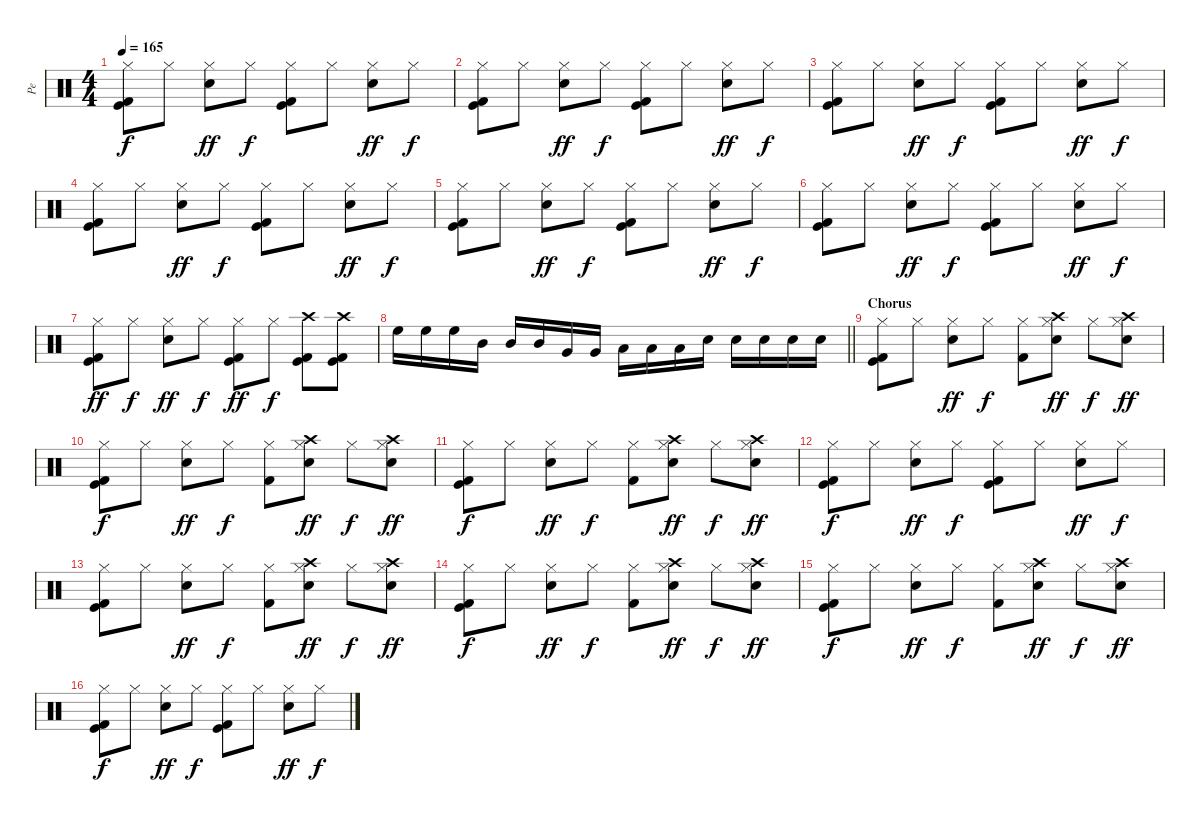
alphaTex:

\track ("Pe" "Pe") {instrument percussion}
\staff {score}
\articulation defaults
\ts (4 4)
\tempo 165
\clef neutral
\ks c
("Kick (hit)" "Hi-Hat (closed)" "Kick (hit) 2").8{dy f} "Hi-Hat (closed)".8 ("Electric Snare (hit)" "Hi-Hat (closed)").8{dy ff} "Hi-Hat (closed)".8{dy f} ("Kick (hit)" "Hi-Hat (closed)" "Kick (hit) 2").8 "Hi-Hat (closed)".8 ("Electric Snare (hit)" "Hi-Hat (closed)").8{dy ff} "Hi-Hat (closed)".8{dy f} |
("Kick (hit)" "Hi-Hat (closed)" "Kick (hit) 2").8 "Hi-Hat (closed)".8 ("Electric Snare (hit)" "Hi-Hat (closed)").8{dy ff} "Hi-Hat (closed)".8{dy f} ("Kick (hit)" "Hi-Hat (closed)" "Kick (hit) 2").8 "Hi-Hat (closed)".8 ("Electric Snare (hit)" "Hi-Hat (closed)").8{dy ff} "Hi-Hat (closed)".8{dy f} |
("Kick (hit)" "Hi-Hat (closed)" "Kick (hit) 2").8 "Hi-Hat (closed)".8 ("Electric Snare (hit)" "Hi-Hat (closed)").8{dy ff} "Hi-Hat (closed)".8{dy f} ("Kick (hit)" "Hi-Hat (closed)" "Kick (hit) 2").8 "Hi-Hat (closed)".8 ("Electric Snare (hit)" "Hi-Hat (closed)").8{dy ff} "Hi-Hat (closed)".8{dy f} |
("Kick (hit)" "Hi-Hat (closed)" "Kick (hit) 2").8 "Hi-Hat (closed)".8 ("Electric Snare (hit)" "Hi-Hat (closed)").8{dy ff} "Hi-Hat (closed)".8{dy f} ("Kick (hit)" "Hi-Hat (closed)" "Kick (hit) 2").8 "Hi-Hat (closed)".8 ("Electric Snare (hit)" "Hi-Hat (closed)").8{dy ff} "Hi-Hat (closed)".8{dy f} |
("Kick (hit)" "Hi-Hat (closed)" "Kick (hit) 2").8 "Hi-Hat (closed)".8 ("Electric Snare (hit)" "Hi-Hat (closed)").8{dy ff} "Hi-Hat (closed)".8{dy f} ("Kick (hit)" "Hi-Hat (closed)" "Kick (hit) 2").8 "Hi-Hat (closed)".8 ("Electric Snare (hit)" "Hi-Hat (closed)").8{dy ff} "Hi-Hat (closed)".8{dy f} |
("Kick (hit)" "Hi-Hat (closed)" "Kick (hit) 2").8 "Hi-Hat (closed)".8 ("Electric Snare (hit)" "Hi-Hat (closed)").8{dy ff} "Hi-Hat (closed)".8{dy f} ("Kick (hit)" "Hi-Hat (closed)" "Kick (hit) 2").8 "Hi-Hat (closed)".8 ("Electric Snare (hit)" "Hi-Hat (closed)").8{dy ff} "Hi-Hat (closed)".8{dy f} |
("Kick (hit)" "Hi-Hat (closed)" "Kick (hit) 2").8{dy ff} "Hi-Hat (closed)".8{dy f} ("Electric Snare (hit)" "Hi-Hat (closed)").8{dy ff} "Hi-Hat (closed)".8{dy f} ("Kick (hit)" "Hi-Hat (closed)" "Kick (hit) 2").8{dy ff} "Hi-Hat (closed)".8{dy f} ("Crash high (hit)" "Kick (hit)" "Kick (hit) 2").8 ("Crash high (hit)" "Kick (hit)" "Kick (hit) 2").8 |
\barLineRight lightlight "High Floor Tom (hit)".16 "High Floor Tom (hit)".16 "High Floor Tom (hit)".16 "Mid Tom (hit)".16 "Mid Tom (hit)".16 "Mid Tom (hit)".16 "Very Low Tom (hit)".16 "Very Low Tom (hit)".16 "Low Floor Tom (hit)".16 "Low Floor Tom (hit)".16 "Low Floor Tom (hit)".16 "Electric Snare (hit)".16 "Electric Snare (hit)".16 "Electric Snare (hit)".16 "Electric Snare (hit)".16 "Electric Snare (hit)".16
|
\section ("" "Chorus")
("Kick (hit)" "Hi-Hat (closed)" "Kick (hit) 2").8 "Hi-Hat (closed)".8 ("Electric Snare (hit)" "Hi-Hat (closed)").8{dy ff} "Hi-Hat (closed)".8{dy f} ("Hi-Hat (closed)" "Kick (hit) 2").8 ("Crash high (hit)" "Electric Snare (hit)" "Hi-Hat (closed)").8{dy ff} "Hi-Hat (closed)".8{dy f} ("Crash high (hit)" "Electric Snare (hit)" "Hi-Hat (closed)").8{dy ff} |
("Kick (hit)" "Hi-Hat (closed)" "Kick (hit) 2").8{dy f} "Hi-Hat (closed)".8 ("Electric Snare (hit)" "Hi-Hat (closed)").8{dy ff} "Hi-Hat (closed)".8{dy f} ("Hi-Hat (closed)" "Kick (hit) 2").8 ("Crash high (hit)" "Electric Snare (hit)" "Hi-Hat (closed)").8{dy ff} "Hi-Hat (closed)".8{dy f} ("Crash high (hit)" "Electric Snare (hit)" "Hi-Hat (closed)").8{dy ff} |
("Kick (hit)" "Hi-Hat (closed)" "Kick (hit) 2").8{dy f} "Hi-Hat (closed)".8 ("Electric Snare (hit)" "Hi-Hat (closed)").8{dy ff} "Hi-Hat (closed)".8{dy f} ("Hi-Hat (closed)" "Kick (hit) 2").8 ("Crash high (hit)" "Electric Snare (hit)" "Hi-Hat (closed)").8{dy ff} "Hi-Hat (closed)".8{dy f} ("Crash high (hit)" "Electric Snare (hit)" "Hi-Hat (closed)").8{dy ff} |
("Kick (hit)" "Hi-Hat (closed)" "Kick (hit) 2").8{dy f} "Hi-Hat (closed)".8 ("Electric Snare (hit)" "Hi-Hat (closed)").8{dy ff} "Hi-Hat (closed)".8{dy f} ("Kick (hit)" "Hi-Hat (closed)" "Kick (hit) 2").8 "Hi-Hat (closed)".8 ("Electric Snare (hit)" "Hi-Hat (closed)").8{dy ff} "Hi-Hat (closed)".8{dy f} |
("Kick (hit)" "Hi-Hat (closed)" "Kick (hit) 2").8 "Hi-Hat (closed)".8 ("Electric Snare (hit)" "Hi-Hat (closed)").8{dy ff} "Hi-Hat (closed)".8{dy f} ("Hi-Hat (closed)" "Kick (hit) 2").8 ("Crash high (hit)" "Electric Snare (hit)" "Hi-Hat (closed)").8{dy ff} "Hi-Hat (closed)".8{dy f} ("Crash high (hit)" "Electric Snare (hit)" "Hi-Hat (closed)").8{dy ff} |
("Kick (hit)" "Hi-Hat (closed)" "Kick (hit) 2").8{dy f} "Hi-Hat (closed)".8 ("Electric Snare (hit)" "Hi-Hat (closed)").8{dy ff} "Hi-Hat (closed)".8{dy f} ("Hi-Hat (closed)" "Kick (hit) 2").8 ("Crash high (hit)" "Electric Snare (hit)" "Hi-Hat (closed)").8{dy ff} "Hi-Hat (closed)".8{dy f} ("Crash high (hit)" "Electric Snare (hit)" "Hi-Hat (closed)").8{dy ff} |
("Kick (hit)" "Hi-Hat (closed)" "Kick (hit) 2").8{dy f} "Hi-Hat (closed)".8 ("Electric Snare (hit)" "Hi-Hat (closed)").8{dy ff} "Hi-Hat (closed)".8{dy f} ("Hi-Hat (closed)" "Kick (hit) 2").8 ("Crash high (hit)" "Electric Snare (hit)" "Hi-Hat (closed)").8{dy ff} "Hi-Hat (closed)".8{dy f} ("Crash high (hit)" "Electric Snare (hit)" "Hi-Hat (closed)").8{dy ff} |
("Kick (hit)" "Hi-Hat (closed)" "Kick (hit) 2").8{dy f} "Hi-Hat (closed)".8 ("Electric Snare (hit)" "Hi-Hat (closed)").8{dy ff} "Hi-Hat (closed)".8{dy f} ("Kick (hit)" "Hi-Hat (closed)" "Kick (hit) 2").8 "Hi-Hat (closed)".8 ("Electric Snare (hit)" "Hi-Hat (closed)").8{dy ff} "Hi-Hat (closed)".8{dy f}
